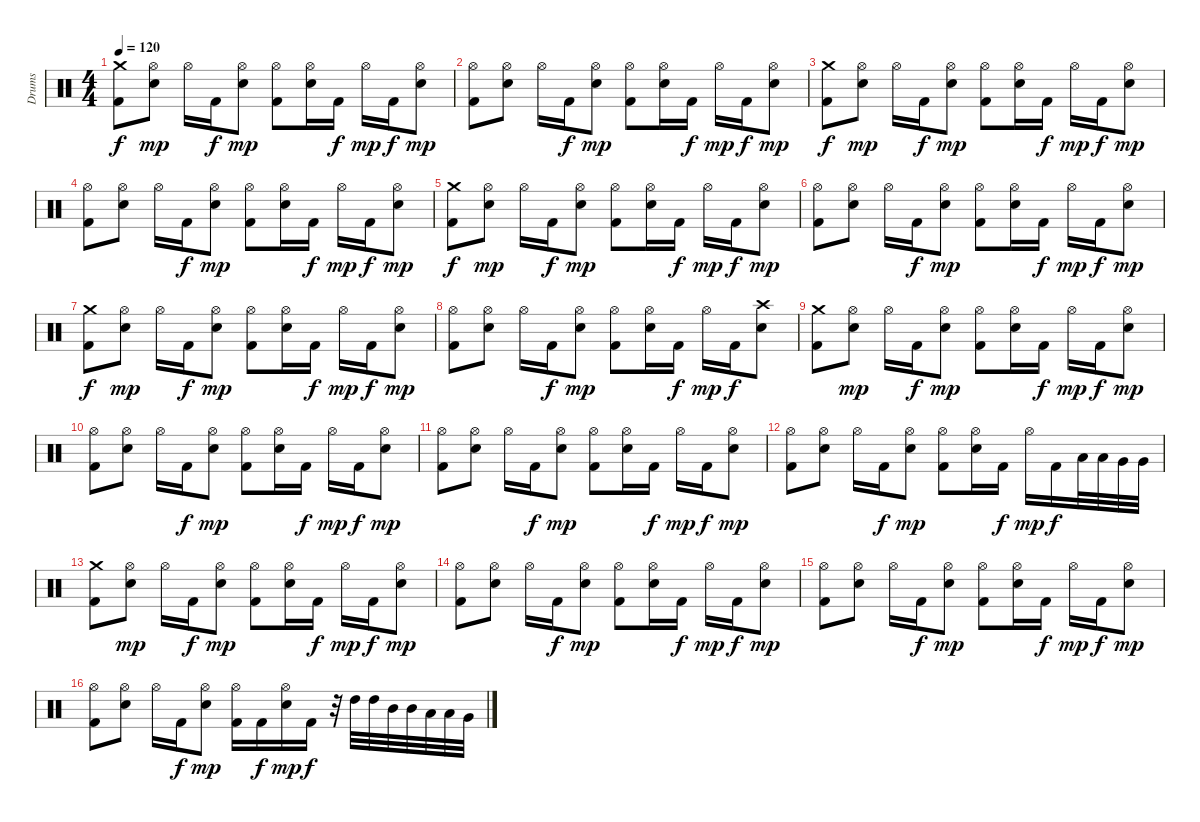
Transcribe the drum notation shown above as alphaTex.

\track ("Drums" "Drums") {instrument percussion}
\staff {score}
\articulation defaults
\ts (4 4)
\tempo 120
\clef neutral
\ks c
("Crash medium (hit)" "Kick (hit) 2").8{dy f} ("Hi-Hat (open)" "Snare (hit) 2").8{dy mp} "Hi-Hat (open)".16 "Kick (hit) 2".16{dy f} ("Hi-Hat (open)" "Snare (hit) 2").8{dy mp} ("Hi-Hat (open)" "Kick (hit) 2").8 ("Hi-Hat (open)" "Snare (hit) 2").16 "Kick (hit) 2".16{dy f} "Hi-Hat (open)".16{dy mp} "Kick (hit) 2".16{dy f} ("Hi-Hat (open)" "Snare (hit) 2").8{dy mp} |
("Hi-Hat (open)" "Kick (hit) 2").8 ("Hi-Hat (open)" "Snare (hit) 2").8 "Hi-Hat (open)".16 "Kick (hit) 2".16{dy f} ("Hi-Hat (open)" "Snare (hit) 2").8{dy mp} ("Hi-Hat (open)" "Kick (hit) 2").8 ("Hi-Hat (open)" "Snare (hit) 2").16 "Kick (hit) 2".16{dy f} "Hi-Hat (open)".16{dy mp} "Kick (hit) 2".16{dy f} ("Hi-Hat (open)" "Snare (hit) 2").8{dy mp} |
("Crash medium (hit)" "Kick (hit) 2").8{dy f} ("Hi-Hat (open)" "Snare (hit) 2").8{dy mp} "Hi-Hat (open)".16 "Kick (hit) 2".16{dy f} ("Hi-Hat (open)" "Snare (hit) 2").8{dy mp} ("Hi-Hat (open)" "Kick (hit) 2").8 ("Hi-Hat (open)" "Snare (hit) 2").16 "Kick (hit) 2".16{dy f} "Hi-Hat (open)".16{dy mp} "Kick (hit) 2".16{dy f} ("Hi-Hat (open)" "Snare (hit) 2").8{dy mp} |
("Hi-Hat (open)" "Kick (hit) 2").8 ("Hi-Hat (open)" "Snare (hit) 2").8 "Hi-Hat (open)".16 "Kick (hit) 2".16{dy f} ("Hi-Hat (open)" "Snare (hit) 2").8{dy mp} ("Hi-Hat (open)" "Kick (hit) 2").8 ("Hi-Hat (open)" "Snare (hit) 2").16 "Kick (hit) 2".16{dy f} "Hi-Hat (open)".16{dy mp} "Kick (hit) 2".16{dy f} ("Hi-Hat (open)" "Snare (hit) 2").8{dy mp} |
("Crash medium (hit)" "Kick (hit) 2").8{dy f} ("Hi-Hat (open)" "Snare (hit) 2").8{dy mp} "Hi-Hat (open)".16 "Kick (hit) 2".16{dy f} ("Hi-Hat (open)" "Snare (hit) 2").8{dy mp} ("Hi-Hat (open)" "Kick (hit) 2").8 ("Hi-Hat (open)" "Snare (hit) 2").16 "Kick (hit) 2".16{dy f} "Hi-Hat (open)".16{dy mp} "Kick (hit) 2".16{dy f} ("Hi-Hat (open)" "Snare (hit) 2").8{dy mp} |
("Hi-Hat (open)" "Kick (hit) 2").8 ("Hi-Hat (open)" "Snare (hit) 2").8 "Hi-Hat (open)".16 "Kick (hit) 2".16{dy f} ("Hi-Hat (open)" "Snare (hit) 2").8{dy mp} ("Hi-Hat (open)" "Kick (hit) 2").8 ("Hi-Hat (open)" "Snare (hit) 2").16 "Kick (hit) 2".16{dy f} "Hi-Hat (open)".16{dy mp} "Kick (hit) 2".16{dy f} ("Hi-Hat (open)" "Snare (hit) 2").8{dy mp} |
("Crash medium (hit)" "Kick (hit) 2").8{dy f} ("Hi-Hat (open)" "Snare (hit) 2").8{dy mp} "Hi-Hat (open)".16 "Kick (hit) 2".16{dy f} ("Hi-Hat (open)" "Snare (hit) 2").8{dy mp} ("Hi-Hat (open)" "Kick (hit) 2").8 ("Hi-Hat (open)" "Snare (hit) 2").16 "Kick (hit) 2".16{dy f} "Hi-Hat (open)".16{dy mp} "Kick (hit) 2".16{dy f} ("Hi-Hat (open)" "Snare (hit) 2").8{dy mp} |
("Hi-Hat (open)" "Kick (hit) 2").8 ("Hi-Hat (open)" "Snare (hit) 2").8 "Hi-Hat (open)".16 "Kick (hit) 2".16{dy f} ("Hi-Hat (open)" "Snare (hit) 2").8{dy mp} ("Hi-Hat (open)" "Kick (hit) 2").8 ("Hi-Hat (open)" "Snare (hit) 2").16 "Kick (hit) 2".16{dy f} "Hi-Hat (open)".16{dy mp} "Kick (hit) 2".16{dy f} ("Crash high (hit)" "Snare (hit) 2").8 |
("Crash medium (hit)" "Kick (hit) 2").8 ("Hi-Hat (open)" "Snare (hit) 2").8{dy mp} "Hi-Hat (open)".16 "Kick (hit) 2".16{dy f} ("Hi-Hat (open)" "Snare (hit) 2").8{dy mp} ("Hi-Hat (open)" "Kick (hit) 2").8 ("Hi-Hat (open)" "Snare (hit) 2").16 "Kick (hit) 2".16{dy f} "Hi-Hat (open)".16{dy mp} "Kick (hit) 2".16{dy f} ("Hi-Hat (open)" "Snare (hit) 2").8{dy mp} |
("Hi-Hat (open)" "Kick (hit) 2").8 ("Hi-Hat (open)" "Snare (hit) 2").8 "Hi-Hat (open)".16 "Kick (hit) 2".16{dy f} ("Hi-Hat (open)" "Snare (hit) 2").8{dy mp} ("Hi-Hat (open)" "Kick (hit) 2").8 ("Hi-Hat (open)" "Snare (hit) 2").16 "Kick (hit) 2".16{dy f} "Hi-Hat (open)".16{dy mp} "Kick (hit) 2".16{dy f} ("Hi-Hat (open)" "Snare (hit) 2").8{dy mp} |
("Hi-Hat (open)" "Kick (hit) 2").8 ("Hi-Hat (open)" "Snare (hit) 2").8 "Hi-Hat (open)".16 "Kick (hit) 2".16{dy f} ("Hi-Hat (open)" "Snare (hit) 2").8{dy mp} ("Hi-Hat (open)" "Kick (hit) 2").8 ("Hi-Hat (open)" "Snare (hit) 2").16 "Kick (hit) 2".16{dy f} "Hi-Hat (open)".16{dy mp} "Kick (hit) 2".16{dy f} ("Hi-Hat (open)" "Snare (hit) 2").8{dy mp} |
("Hi-Hat (open)" "Kick (hit) 2").8 ("Hi-Hat (open)" "Snare (hit) 2").8 "Hi-Hat (open)".16 "Kick (hit) 2".16{dy f} ("Hi-Hat (open)" "Snare (hit) 2").8{dy mp} ("Hi-Hat (open)" "Kick (hit) 2").8 ("Hi-Hat (open)" "Snare (hit) 2").16 "Kick (hit) 2".16{dy f} "Hi-Hat (open)".16{dy mp} "Kick (hit) 2".16{dy f} "Low Tom (hit)".32 "Low Tom (hit)".32 "Very Low Tom (hit)".32 "Very Low Tom (hit)".32 |
("Crash medium (hit)" "Kick (hit) 2").8 ("Hi-Hat (open)" "Snare (hit) 2").8{dy mp} "Hi-Hat (open)".16 "Kick (hit) 2".16{dy f} ("Hi-Hat (open)" "Snare (hit) 2").8{dy mp} ("Hi-Hat (open)" "Kick (hit) 2").8 ("Hi-Hat (open)" "Snare (hit) 2").16 "Kick (hit) 2".16{dy f} "Hi-Hat (open)".16{dy mp} "Kick (hit) 2".16{dy f} ("Hi-Hat (open)" "Snare (hit) 2").8{dy mp} |
("Hi-Hat (open)" "Kick (hit) 2").8 ("Hi-Hat (open)" "Snare (hit) 2").8 "Hi-Hat (open)".16 "Kick (hit) 2".16{dy f} ("Hi-Hat (open)" "Snare (hit) 2").8{dy mp} ("Hi-Hat (open)" "Kick (hit) 2").8 ("Hi-Hat (open)" "Snare (hit) 2").16 "Kick (hit) 2".16{dy f} "Hi-Hat (open)".16{dy mp} "Kick (hit) 2".16{dy f} ("Hi-Hat (open)" "Snare (hit) 2").8{dy mp} |
("Hi-Hat (open)" "Kick (hit) 2").8 ("Hi-Hat (open)" "Snare (hit) 2").8 "Hi-Hat (open)".16 "Kick (hit) 2".16{dy f} ("Hi-Hat (open)" "Snare (hit) 2").8{dy mp} ("Hi-Hat (open)" "Kick (hit) 2").8 ("Hi-Hat (open)" "Snare (hit) 2").16 "Kick (hit) 2".16{dy f} "Hi-Hat (open)".16{dy mp} "Kick (hit) 2".16{dy f} ("Hi-Hat (open)" "Snare (hit) 2").8{dy mp} |
("Hi-Hat (open)" "Kick (hit) 2").8 ("Hi-Hat (open)" "Snare (hit) 2").8 "Hi-Hat (open)".16 "Kick (hit) 2".16{dy f} ("Hi-Hat (open)" "Snare (hit) 2").8{dy mp} ("Hi-Hat (open)" "Kick (hit) 2").16 "Kick (hit) 2".16{dy f} ("Hi-Hat (open)" "Snare (hit) 2").16{dy mp} "Kick (hit) 2".16{dy f} r.32 "High Tom (hit)".32 "High Tom (hit)".32 "Mid Tom (hit)".32 "Mid Tom (hit)".32 "Low Tom (hit)".32 "Low Tom (hit)".32 "Very Low Tom (hit)".32
